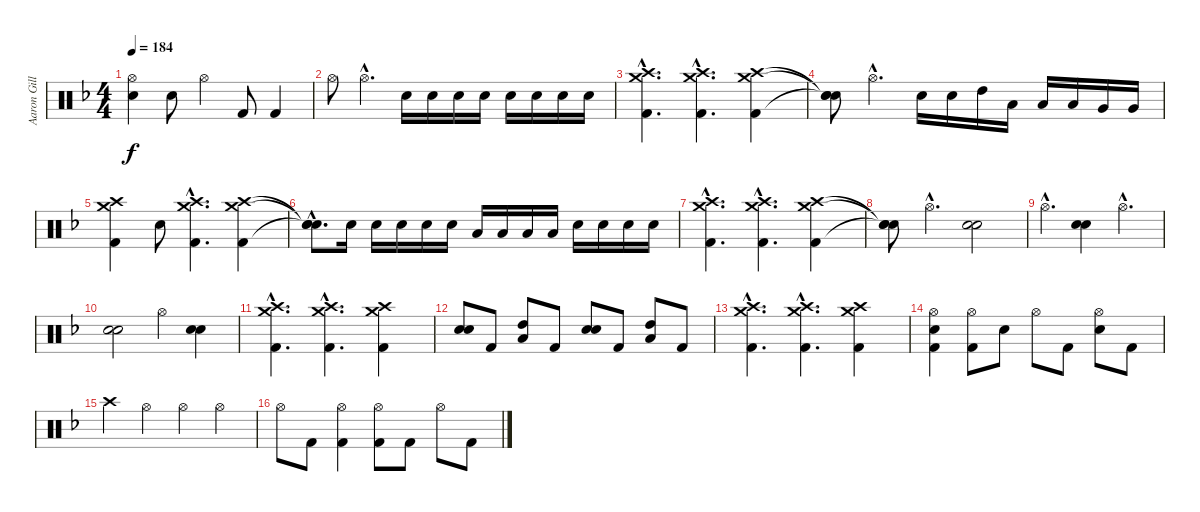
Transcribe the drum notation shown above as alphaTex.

\track ("Aaron Gillespie" "Aaron Gill") {instrument percussion}
\staff {score}
\articulation defaults
\ts (4 4)
\tempo 184
\clef neutral
\ks dminor
("Hi-Hat (open)" "Snare (hit) 2").4{dy f} "Snare (hit) 2".8 "Hi-Hat (open)".4 "Kick (hit) 2".8 "Kick (hit) 2".4 |
"Hi-Hat (open)".8 "Hi-Hat (open)"{hac}.4{d} "Snare (hit) 2".16 "Snare (hit) 2".16 "Snare (hit) 2".16 "Snare (hit) 2".16 "Snare (hit) 2".16 "Snare (hit) 2".16 "Snare (hit) 2".16 "Snare (hit) 2".16 |
("Crash medium (hit)"{hac} "Crash high (hit)"{hac} "Kick (hit) 2"{hac}).4{d} ("Crash medium (hit)"{hac} "Crash high (hit)"{hac} "Kick (hit) 2"{hac}).4{d} ("Crash medium (hit)" "Crash high (hit)" "Kick (hit) 2").4 |
("Snare (hit)"{t} "Snare (hit)"{t} "Snare (hit)"{t}).8 "Hi-Hat (open)"{hac}.4{d} "Snare (hit) 2".16 "Snare (hit) 2".16 "High Tom (hit)".16 "Low Tom (hit)".16 "Low Tom (hit)".16 "Low Tom (hit)".16 "Very Low Tom (hit)".16 "Very Low Tom (hit)".16 |
("Crash medium (hit)" "Crash high (hit)" "Kick (hit) 2").4 "Snare (hit) 2".8 ("Crash medium (hit)"{hac} "Crash high (hit)"{hac} "Kick (hit) 2"{hac}).4{d} ("Crash medium (hit)" "Crash high (hit)" "Kick (hit) 2").4 |
("Snare (hit)"{hac t} "Snare (hit)"{hac t} "Snare (hit)"{hac t}).8{d} "Snare (hit) 2".16 "Snare (hit) 2".16 "Snare (hit) 2".16 "Snare (hit) 2".16 "Snare (hit) 2".16 "Low Tom (hit)".16 "Low Tom (hit)".16 "Low Tom (hit)".16 "Low Tom (hit)".16 "Snare (hit) 2".16 "Snare (hit) 2".16 "Snare (hit) 2".16 "Snare (hit) 2".16 |
("Crash medium (hit)"{hac} "Crash high (hit)"{hac} "Kick (hit) 2"{hac}).4{d} ("Crash medium (hit)"{hac} "Crash high (hit)"{hac} "Kick (hit) 2"{hac}).4{d} ("Crash medium (hit)" "Crash high (hit)" "Kick (hit) 2").4 |
("Snare (hit)"{t} "Snare (hit)"{t} "Snare (hit)"{t}).8 "Hi-Hat (open)"{hac}.4{d} ("Snare (hit) 2" "Snare (hit) 2").2 |
"Hi-Hat (open)"{hac}.4{d} ("Snare (hit) 2" "Snare (hit) 2").4 "Hi-Hat (open)"{hac}.4{d} |
("Snare (hit) 2" "Snare (hit) 2").2 "Hi-Hat (open)".4 ("Snare (hit) 2" "Snare (hit) 2").4 |
("Crash medium (hit)"{hac} "Crash high (hit)"{hac} "Kick (hit) 2"{hac}).4{d} ("Crash medium (hit)"{hac} "Crash high (hit)"{hac} "Kick (hit) 2"{hac}).4{d} ("Crash medium (hit)" "Crash high (hit)" "Kick (hit) 2").4 |
("Snare (hit) 2" "Snare (hit) 2").8 "Kick (hit) 2".8 ("High Tom (hit)" "Low Tom (hit)").8 "Kick (hit) 2".8 ("Snare (hit) 2" "Snare (hit) 2").8 "Kick (hit) 2".8 ("High Tom (hit)" "Low Tom (hit)").8 "Kick (hit) 2".8 |
("Crash medium (hit)"{hac} "Crash high (hit)"{hac} "Kick (hit) 2"{hac}).4{d} ("Crash medium (hit)"{hac} "Crash high (hit)"{hac} "Kick (hit) 2"{hac}).4{d} ("Crash medium (hit)" "Crash high (hit)" "Kick (hit) 2").4 |
("Hi-Hat (open)" "Snare (hit) 2" "Kick (hit) 2").4 ("Hi-Hat (open)" "Kick (hit) 2").8 "Snare (hit) 2".8 "Hi-Hat (open)".8 "Kick (hit) 2".8 ("Hi-Hat (open)" "Snare (hit) 2").8 "Kick (hit) 2".8 |
"Crash high (hit)".4 "Hi-Hat (open)".4 "Hi-Hat (open)".4 "Hi-Hat (open)".4 |
"Hi-Hat (open)".8 "Kick (hit) 2".8 ("Hi-Hat (open)" "Kick (hit) 2").4 ("Hi-Hat (open)" "Kick (hit) 2").8 "Kick (hit) 2".8 "Hi-Hat (open)".8 "Kick (hit) 2".8
